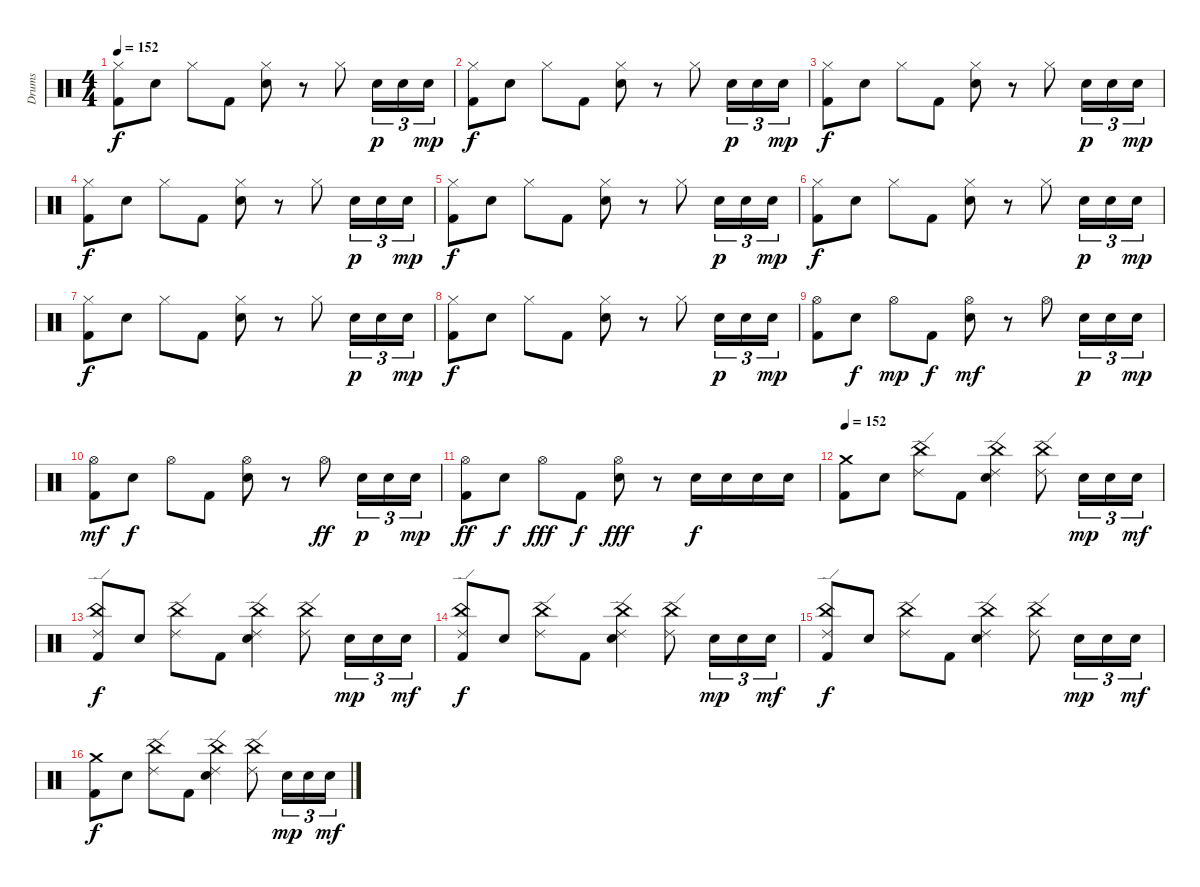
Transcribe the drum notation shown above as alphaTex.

\track ("Drums" "Drums") {instrument percussion}
\staff {score}
\articulation defaults
\ts (4 4)
\tempo 152
\clef neutral
\ks c
("Hi-Hat (closed)" "Kick (hit) 2").8{dy f} "Snare (hit) 2".8 "Hi-Hat (closed)".8 "Kick (hit) 2".8 ("Hi-Hat (closed)" "Snare (hit) 2").8 r.8 "Hi-Hat (closed)".8 "Snare (hit) 2".16{tu (3 2) dy p} "Snare (hit) 2".16{tu (3 2)} "Snare (hit) 2".16{tu (3 2) dy mp} |
("Hi-Hat (closed)" "Kick (hit) 2").8{dy f} "Snare (hit) 2".8 "Hi-Hat (closed)".8 "Kick (hit) 2".8 ("Hi-Hat (closed)" "Snare (hit) 2").8 r.8 "Hi-Hat (closed)".8 "Snare (hit) 2".16{tu (3 2) dy p} "Snare (hit) 2".16{tu (3 2)} "Snare (hit) 2".16{tu (3 2) dy mp} |
("Hi-Hat (closed)" "Kick (hit) 2").8{dy f} "Snare (hit) 2".8 "Hi-Hat (closed)".8 "Kick (hit) 2".8 ("Hi-Hat (closed)" "Snare (hit) 2").8 r.8 "Hi-Hat (closed)".8 "Snare (hit) 2".16{tu (3 2) dy p} "Snare (hit) 2".16{tu (3 2)} "Snare (hit) 2".16{tu (3 2) dy mp} |
("Hi-Hat (closed)" "Kick (hit) 2").8{dy f volume 13} "Snare (hit) 2".8 "Hi-Hat (closed)".8 "Kick (hit) 2".8 ("Hi-Hat (closed)" "Snare (hit) 2").8 r.8 "Hi-Hat (closed)".8 "Snare (hit) 2".16{tu (3 2) dy p} "Snare (hit) 2".16{tu (3 2)} "Snare (hit) 2".16{tu (3 2) dy mp} |
("Hi-Hat (closed)" "Kick (hit) 2").8{dy f} "Snare (hit) 2".8 "Hi-Hat (closed)".8 "Kick (hit) 2".8 ("Hi-Hat (closed)" "Snare (hit) 2").8 r.8 "Hi-Hat (closed)".8 "Snare (hit) 2".16{tu (3 2) dy p} "Snare (hit) 2".16{tu (3 2)} "Snare (hit) 2".16{tu (3 2) dy mp} |
("Hi-Hat (closed)" "Kick (hit) 2").8{dy f} "Snare (hit) 2".8 "Hi-Hat (closed)".8 "Kick (hit) 2".8 ("Hi-Hat (closed)" "Snare (hit) 2").8 r.8 "Hi-Hat (closed)".8 "Snare (hit) 2".16{tu (3 2) dy p} "Snare (hit) 2".16{tu (3 2)} "Snare (hit) 2".16{tu (3 2) dy mp} |
("Hi-Hat (closed)" "Kick (hit) 2").8{dy f} "Snare (hit) 2".8 "Hi-Hat (closed)".8 "Kick (hit) 2".8 ("Hi-Hat (closed)" "Snare (hit) 2").8 r.8 "Hi-Hat (closed)".8 "Snare (hit) 2".16{tu (3 2) dy p} "Snare (hit) 2".16{tu (3 2)} "Snare (hit) 2".16{tu (3 2) dy mp} |
("Hi-Hat (closed)" "Kick (hit) 2").8{dy f} "Snare (hit) 2".8 "Hi-Hat (closed)".8 "Kick (hit) 2".8 ("Hi-Hat (closed)" "Snare (hit) 2").8 r.8 "Hi-Hat (closed)".8 "Snare (hit) 2".16{tu (3 2) dy p} "Snare (hit) 2".16{tu (3 2)} "Snare (hit) 2".16{tu (3 2) dy mp} |
("Hi-Hat (open)" "Kick (hit) 2").8 "Snare (hit) 2".8{dy f} "Hi-Hat (open)".8{dy mp} "Kick (hit) 2".8{dy f} ("Hi-Hat (open)" "Snare (hit) 2").8{dy mf} r.8 "Hi-Hat (open)".8 "Snare (hit) 2".16{tu (3 2) dy p} "Snare (hit) 2".16{tu (3 2)} "Snare (hit) 2".16{tu (3 2) dy mp} |
("Hi-Hat (open)" "Kick (hit) 2").8{dy mf} "Snare (hit) 2".8{dy f} "Hi-Hat (open)".8 "Kick (hit) 2".8 ("Hi-Hat (open)" "Snare (hit) 2").8 r.8 "Hi-Hat (open)".8{dy ff} "Snare (hit) 2".16{tu (3 2) dy p} "Snare (hit) 2".16{tu (3 2)} "Snare (hit) 2".16{tu (3 2) dy mp} |
("Hi-Hat (open)" "Kick (hit) 2").8{dy ff} "Snare (hit) 2".8{dy f} "Hi-Hat (open)".8{dy fff} "Kick (hit) 2".8{dy f} ("Hi-Hat (open)" "Snare (hit) 2").8{dy fff} r.8 "Snare (hit) 2".16{dy f} "Snare (hit) 2".16 "Snare (hit) 2".16 "Snare (hit) 2".16 |
\tempo 152
("Crash medium (hit)" "Kick (hit) 2").8 "Snare (hit) 2".8 ("China (hit)" "Ride (edge) 2").8 "Kick (hit) 2".8 ("China (hit)" "Ride (edge) 2" "Snare (hit) 2").4 ("China (hit)" "Ride (edge) 2").8 "Snare (hit) 2".16{tu (3 2) dy mp} "Snare (hit) 2".16{tu (3 2)} "Snare (hit) 2".16{tu (3 2) dy mf} |
("China (hit)" "Ride (edge) 2" "Kick (hit) 2").8{dy f} "Snare (hit) 2".8 ("China (hit)" "Ride (edge) 2").8 "Kick (hit) 2".8 ("China (hit)" "Ride (edge) 2" "Snare (hit) 2").4 ("China (hit)" "Ride (edge) 2").8 "Snare (hit) 2".16{tu (3 2) dy mp} "Snare (hit) 2".16{tu (3 2)} "Snare (hit) 2".16{tu (3 2) dy mf} |
("China (hit)" "Ride (edge) 2" "Kick (hit) 2").8{dy f} "Snare (hit) 2".8 ("China (hit)" "Ride (edge) 2").8 "Kick (hit) 2".8 ("China (hit)" "Ride (edge) 2" "Snare (hit) 2").4 ("China (hit)" "Ride (edge) 2").8 "Snare (hit) 2".16{tu (3 2) dy mp} "Snare (hit) 2".16{tu (3 2)} "Snare (hit) 2".16{tu (3 2) dy mf} |
("China (hit)" "Ride (edge) 2" "Kick (hit) 2").8{dy f} "Snare (hit) 2".8 ("China (hit)" "Ride (edge) 2").8 "Kick (hit) 2".8 ("China (hit)" "Ride (edge) 2" "Snare (hit) 2").4 ("China (hit)" "Ride (edge) 2").8 "Snare (hit) 2".16{tu (3 2) dy mp} "Snare (hit) 2".16{tu (3 2)} "Snare (hit) 2".16{tu (3 2) dy mf} |
("Crash medium (hit)" "Kick (hit) 2").8{dy f} "Snare (hit) 2".8 ("China (hit)" "Ride (edge) 2").8 "Kick (hit) 2".8 ("China (hit)" "Ride (edge) 2" "Snare (hit) 2").4 ("China (hit)" "Ride (edge) 2").8 "Snare (hit) 2".16{tu (3 2) dy mp} "Snare (hit) 2".16{tu (3 2)} "Snare (hit) 2".16{tu (3 2) dy mf}
